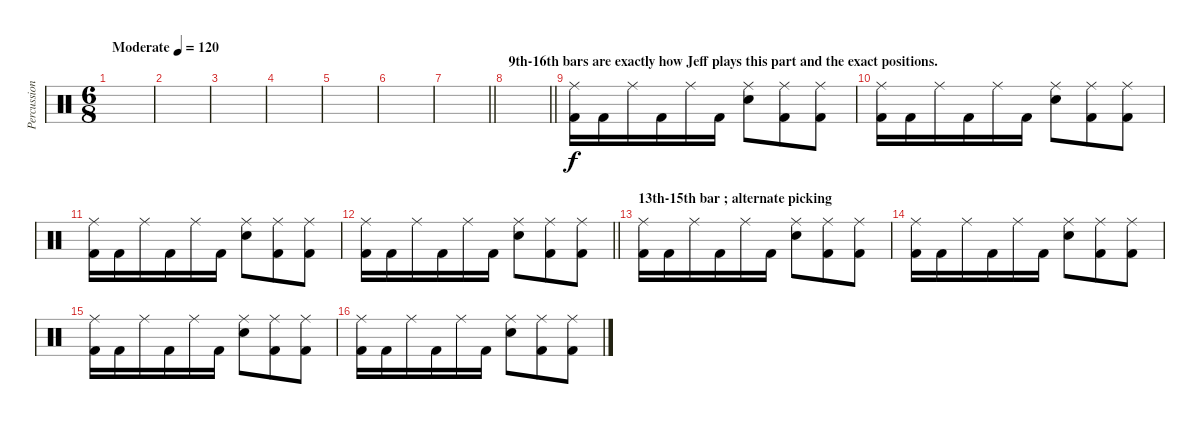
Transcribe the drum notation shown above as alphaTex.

\track ("Percussion" "Percussion") {instrument percussion}
\staff {score}
\articulation defaults
\ts (6 8)
\tempo (120 "Moderate")
\clef neutral
\ks c
|
|
|
|
|
|
\barLineRight lightlight
|
\section ("" "9th-16th bars are exactly how Jeff plays this part and the exact positions.")
\barLineRight lightlight
|
\section ("" "")
("Ride (middle)" "Kick (hit) 2").16 "Kick (hit) 2".16 "Ride (middle)".16 "Kick (hit) 2".16 "Ride (middle)".16 "Kick (hit) 2".16 ("Ride (middle)" "Electric Snare (hit)").8 ("Ride (middle)" "Kick (hit) 2").8 ("Ride (middle)" "Kick (hit) 2").8 |
("Ride (middle)" "Kick (hit) 2").16 "Kick (hit) 2".16 "Ride (middle)".16 "Kick (hit) 2".16 "Ride (middle)".16 "Kick (hit) 2".16 ("Ride (middle)" "Electric Snare (hit)").8 ("Ride (middle)" "Kick (hit) 2").8 ("Ride (middle)" "Kick (hit) 2").8 |
("Ride (middle)" "Kick (hit) 2").16 "Kick (hit) 2".16 "Ride (middle)".16 "Kick (hit) 2".16 "Ride (middle)".16 "Kick (hit) 2".16 ("Ride (middle)" "Electric Snare (hit)").8 ("Ride (middle)" "Kick (hit) 2").8 ("Ride (middle)" "Kick (hit) 2").8 |
\barLineRight lightlight
("Ride (middle)" "Kick (hit) 2").16 "Kick (hit) 2".16 "Ride (middle)".16 "Kick (hit) 2".16 "Ride (middle)".16 "Kick (hit) 2".16 ("Ride (middle)" "Electric Snare (hit)").8 ("Ride (middle)" "Kick (hit) 2").8 ("Ride (middle)" "Kick (hit) 2").8 |
\section ("" "13th-15th bar ; alternate picking")
("Ride (middle)" "Kick (hit) 2").16 "Kick (hit) 2".16 "Ride (middle)".16 "Kick (hit) 2".16 "Ride (middle)".16 "Kick (hit) 2".16 ("Ride (middle)" "Electric Snare (hit)").8 ("Ride (middle)" "Kick (hit) 2").8 ("Ride (middle)" "Kick (hit) 2").8 |
("Ride (middle)" "Kick (hit) 2").16 "Kick (hit) 2".16 "Ride (middle)".16 "Kick (hit) 2".16 "Ride (middle)".16 "Kick (hit) 2".16 ("Ride (middle)" "Electric Snare (hit)").8 ("Ride (middle)" "Kick (hit) 2").8 ("Ride (middle)" "Kick (hit) 2").8 |
("Ride (middle)" "Kick (hit) 2").16 "Kick (hit) 2".16 "Ride (middle)".16 "Kick (hit) 2".16 "Ride (middle)".16 "Kick (hit) 2".16 ("Ride (middle)" "Electric Snare (hit)").8 ("Ride (middle)" "Kick (hit) 2").8 ("Ride (middle)" "Kick (hit) 2").8 |
("Ride (middle)" "Kick (hit) 2").16 "Kick (hit) 2".16 "Ride (middle)".16 "Kick (hit) 2".16 "Ride (middle)".16 "Kick (hit) 2".16 ("Ride (middle)" "Electric Snare (hit)").8 ("Ride (middle)" "Kick (hit) 2").8 ("Ride (middle)" "Kick (hit) 2").8
